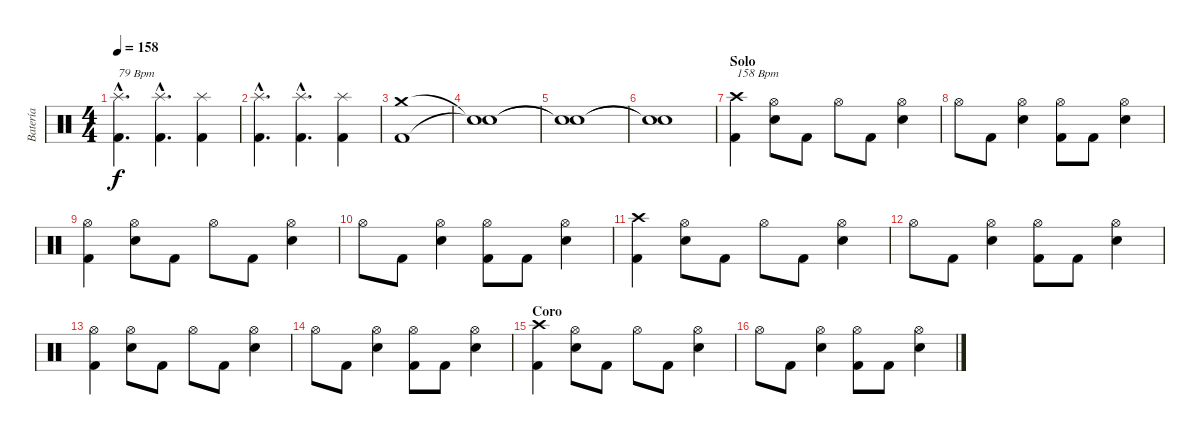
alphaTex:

\track ("Batería" "Batería") {instrument percussion}
\staff {score}
\articulation defaults
\ts (4 4)
\tempo 158
\clef neutral
\ks c
("Splash (hit)"{hac} "Kick (hit) 2"{hac}).4{d txt "79 Bpm" dy f} ("Splash (hit)"{hac} "Kick (hit) 2"{hac}).4{d} ("Splash (hit)" "Kick (hit) 2").4 |
("Splash (hit)"{hac} "Kick (hit) 2"{hac}).4{d} ("Splash (hit)"{hac} "Kick (hit) 2"{hac}).4{d} ("Splash (hit)" "Kick (hit) 2").4 |
("Crash medium (hit)" "Kick (hit) 2").1 |
("Snare (hit)"{t} "Snare (hit)"{t}).1 |
("Snare (hit)"{t} "Snare (hit)"{t}).1 |
("Snare (hit)"{t} "Snare (hit)"{t}).1 |
\section ("" "Solo")
("Crash high (hit)" "Kick (hit) 2").4{txt "158 Bpm"} ("Hi-Hat (open)" "Electric Snare (hit)").8 "Kick (hit) 2".8 "Hi-Hat (open)".8 "Kick (hit) 2".8 ("Hi-Hat (open)" "Electric Snare (hit)").4 |
"Hi-Hat (open)".8 "Kick (hit) 2".8 ("Hi-Hat (open)" "Electric Snare (hit)").4 ("Hi-Hat (open)" "Kick (hit) 2").8 "Kick (hit) 2".8 ("Hi-Hat (open)" "Electric Snare (hit)").4 |
("Hi-Hat (open)" "Kick (hit) 2").4 ("Hi-Hat (open)" "Electric Snare (hit)").8 "Kick (hit) 2".8 "Hi-Hat (open)".8 "Kick (hit) 2".8 ("Hi-Hat (open)" "Electric Snare (hit)").4 |
"Hi-Hat (open)".8 "Kick (hit) 2".8 ("Hi-Hat (open)" "Electric Snare (hit)").4 ("Hi-Hat (open)" "Kick (hit) 2").8 "Kick (hit) 2".8 ("Hi-Hat (open)" "Electric Snare (hit)").4 |
("Crash high (hit)" "Kick (hit) 2").4 ("Hi-Hat (open)" "Electric Snare (hit)").8 "Kick (hit) 2".8 "Hi-Hat (open)".8 "Kick (hit) 2".8 ("Hi-Hat (open)" "Electric Snare (hit)").4 |
"Hi-Hat (open)".8 "Kick (hit) 2".8 ("Hi-Hat (open)" "Electric Snare (hit)").4 ("Hi-Hat (open)" "Kick (hit) 2").8 "Kick (hit) 2".8 ("Hi-Hat (open)" "Electric Snare (hit)").4 |
("Hi-Hat (open)" "Kick (hit) 2").4 ("Hi-Hat (open)" "Electric Snare (hit)").8 "Kick (hit) 2".8 "Hi-Hat (open)".8 "Kick (hit) 2".8 ("Hi-Hat (open)" "Electric Snare (hit)").4 |
"Hi-Hat (open)".8 "Kick (hit) 2".8 ("Hi-Hat (open)" "Electric Snare (hit)").4 ("Hi-Hat (open)" "Kick (hit) 2").8 "Kick (hit) 2".8 ("Hi-Hat (open)" "Electric Snare (hit)").4 |
\section ("" "Coro")
("Crash high (hit)" "Kick (hit) 2").4 ("Hi-Hat (open)" "Electric Snare (hit)").8 "Kick (hit) 2".8 "Hi-Hat (open)".8 "Kick (hit) 2".8 ("Hi-Hat (open)" "Electric Snare (hit)").4 |
"Hi-Hat (open)".8 "Kick (hit) 2".8 ("Hi-Hat (open)" "Electric Snare (hit)").4 ("Hi-Hat (open)" "Kick (hit) 2").8 "Kick (hit) 2".8 ("Hi-Hat (open)" "Electric Snare (hit)").4
